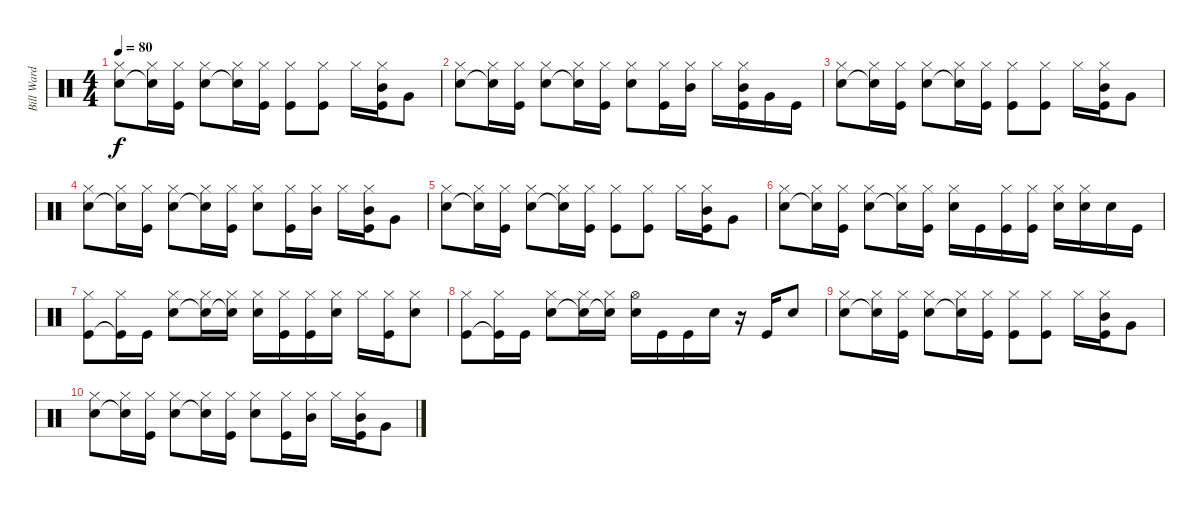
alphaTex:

\track ("Bill Ward" "Bill Ward") {instrument percussion}
\staff {score}
\articulation defaults
\ts (4 4)
\tempo 80
\clef neutral
\ks c
("Hi-Hat (closed)" "Snare (hit) 2").8{dy f} ("Hi-Hat (closed)" "Snare (hit) 2"{t}).16 ("Hi-Hat (closed)" "Kick (hit)").16 ("Hi-Hat (closed)" "Snare (hit) 2").8 ("Hi-Hat (closed)" "Snare (hit) 2"{t}).16 ("Hi-Hat (closed)" "Kick (hit)").16 ("Hi-Hat (closed)" "Kick (hit)").8 ("Hi-Hat (closed)" "Kick (hit)").8 "Hi-Hat (closed)".16 ("Mid Tom (hit)" "Hi-Hat (closed)" "Kick (hit)").16 "Very Low Tom (hit)".8 |
("Hi-Hat (closed)" "Snare (hit) 2").8 ("Hi-Hat (closed)" "Snare (hit) 2"{t}).16 ("Hi-Hat (closed)" "Kick (hit)").16 ("Hi-Hat (closed)" "Snare (hit) 2").8 ("Hi-Hat (closed)" "Snare (hit) 2"{t}).16 ("Hi-Hat (closed)" "Kick (hit)").16 ("Hi-Hat (closed)" "Snare (hit) 2").8 ("Hi-Hat (closed)" "Kick (hit)").16 ("Hi-Hat (closed)" "Mid Tom (hit)").16 "Hi-Hat (closed)".16 ("Mid Tom (hit)" "Hi-Hat (closed)" "Kick (hit)").16 "Very Low Tom (hit)".16 "Kick (hit)".16 |
("Hi-Hat (closed)" "Snare (hit) 2").8 ("Hi-Hat (closed)" "Snare (hit) 2"{t}).16 ("Hi-Hat (closed)" "Kick (hit)").16 ("Hi-Hat (closed)" "Snare (hit) 2").8 ("Hi-Hat (closed)" "Snare (hit) 2"{t}).16 ("Hi-Hat (closed)" "Kick (hit)").16 ("Hi-Hat (closed)" "Kick (hit)").8 ("Hi-Hat (closed)" "Kick (hit)").8 "Hi-Hat (closed)".16 ("Mid Tom (hit)" "Hi-Hat (closed)" "Kick (hit)").16 "Very Low Tom (hit)".8 |
("Hi-Hat (closed)" "Snare (hit) 2").8 ("Hi-Hat (closed)" "Snare (hit) 2"{t}).16 ("Hi-Hat (closed)" "Kick (hit)").16 ("Hi-Hat (closed)" "Snare (hit) 2").8 ("Hi-Hat (closed)" "Snare (hit) 2"{t}).16 ("Hi-Hat (closed)" "Kick (hit)").16 ("Hi-Hat (closed)" "Snare (hit) 2").8 ("Hi-Hat (closed)" "Kick (hit)").16 ("Hi-Hat (closed)" "Mid Tom (hit)").16 "Hi-Hat (closed)".16 ("Mid Tom (hit)" "Hi-Hat (closed)" "Kick (hit)").16 "Very Low Tom (hit)".8 |
("Hi-Hat (closed)" "Snare (hit) 2").8 ("Hi-Hat (closed)" "Snare (hit) 2"{t}).16 ("Hi-Hat (closed)" "Kick (hit)").16 ("Hi-Hat (closed)" "Snare (hit) 2").8 ("Hi-Hat (closed)" "Snare (hit) 2"{t}).16 ("Hi-Hat (closed)" "Kick (hit)").16 ("Hi-Hat (closed)" "Kick (hit)").8 ("Hi-Hat (closed)" "Kick (hit)").8 "Hi-Hat (closed)".16 ("Mid Tom (hit)" "Hi-Hat (closed)" "Kick (hit)").16 "Very Low Tom (hit)".8 |
("Hi-Hat (closed)" "Snare (hit) 2").8 ("Hi-Hat (closed)" "Snare (hit) 2"{t}).16 ("Hi-Hat (closed)" "Kick (hit)").16 ("Hi-Hat (closed)" "Snare (hit) 2").8 ("Hi-Hat (closed)" "Snare (hit) 2"{t}).16 ("Hi-Hat (closed)" "Kick (hit)").16 ("Hi-Hat (closed)" "Snare (hit) 2").16 "Kick (hit)".16 ("Hi-Hat (closed)" "Kick (hit)").16 ("Hi-Hat (closed)" "Kick (hit)").16 ("Hi-Hat (closed)" "Snare (hit) 2").16 ("Hi-Hat (closed)" "Snare (hit) 2").16 "Snare (hit) 2".16 "Kick (hit)".16 |
("Hi-Hat (closed)" "Kick (hit)").8 ("Hi-Hat (closed)" "Kick (hit)"{t}).16 "Kick (hit)".16 ("Hi-Hat (closed)" "Snare (hit) 2").8 ("Hi-Hat (closed)" "Snare (hit) 2"{t}).16 ("Hi-Hat (closed)" "Snare (hit) 2"{t}).16 ("Hi-Hat (closed)" "Snare (hit) 2").16 ("Hi-Hat (closed)" "Kick (hit)").16 ("Hi-Hat (closed)" "Kick (hit)").16 ("Hi-Hat (closed)" "Snare (hit) 2").16 "Hi-Hat (closed)".16 ("Hi-Hat (closed)" "Kick (hit)").16 ("Hi-Hat (closed)" "Snare (hit) 2").8 |
("Hi-Hat (closed)" "Kick (hit)").8 ("Hi-Hat (closed)" "Kick (hit)"{t}).16 "Kick (hit)".16 ("Hi-Hat (closed)" "Snare (hit) 2").8 ("Hi-Hat (closed)" "Snare (hit) 2"{t}).16 ("Hi-Hat (closed)" "Snare (hit) 2"{t}).16 ("Hi-Hat (open)" "Snare (hit) 2").16 "Kick (hit)".16 "Kick (hit)".16 "Snare (hit) 2".16 r.16 "Kick (hit)".16 "Snare (hit) 2".8 |
("Hi-Hat (closed)" "Snare (hit) 2").8 ("Hi-Hat (closed)" "Snare (hit) 2"{t}).16 ("Hi-Hat (closed)" "Kick (hit)").16 ("Hi-Hat (closed)" "Snare (hit) 2").8 ("Hi-Hat (closed)" "Snare (hit) 2"{t}).16 ("Hi-Hat (closed)" "Kick (hit)").16 ("Hi-Hat (closed)" "Kick (hit)").8 ("Hi-Hat (closed)" "Kick (hit)").8 "Hi-Hat (closed)".16 ("Mid Tom (hit)" "Hi-Hat (closed)" "Kick (hit)").16 "Very Low Tom (hit)".8 |
("Hi-Hat (closed)" "Snare (hit) 2").8 ("Hi-Hat (closed)" "Snare (hit) 2"{t}).16 ("Hi-Hat (closed)" "Kick (hit)").16 ("Hi-Hat (closed)" "Snare (hit) 2").8 ("Hi-Hat (closed)" "Snare (hit) 2"{t}).16 ("Hi-Hat (closed)" "Kick (hit)").16 ("Hi-Hat (closed)" "Snare (hit) 2").8 ("Hi-Hat (closed)" "Kick (hit)").16 ("Hi-Hat (closed)" "Mid Tom (hit)").16 "Hi-Hat (closed)".16 ("Mid Tom (hit)" "Hi-Hat (closed)" "Kick (hit)").16 "Very Low Tom (hit)".8
